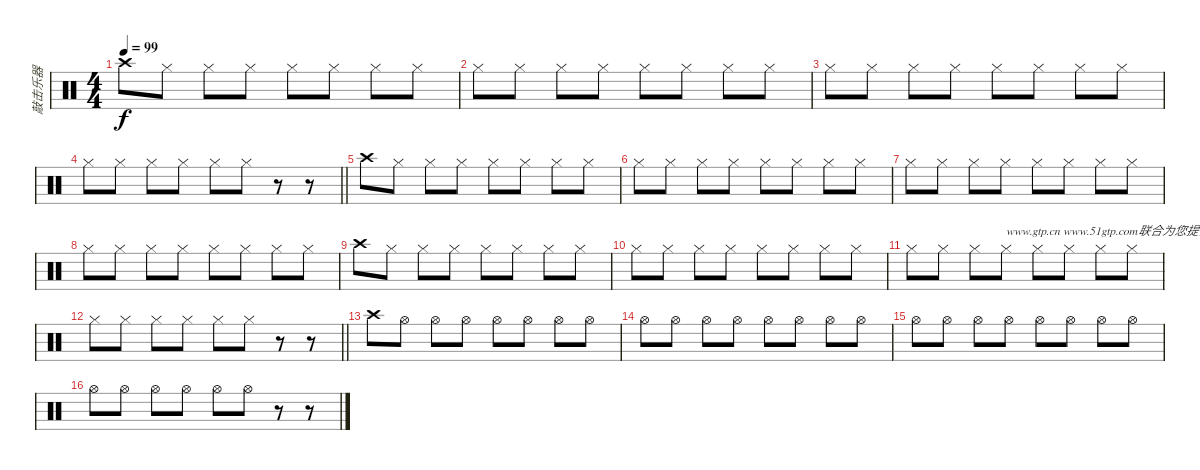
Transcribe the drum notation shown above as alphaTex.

\track ("敲击乐器" "敲击乐器") {instrument percussion}
\staff {score}
\articulation defaults
\ts (4 4)
\tempo 99
\clef neutral
\ks c "Crash high (hit)".8{dy f} "Hi-Hat (closed)".8 "Hi-Hat (closed)".8 "Hi-Hat (closed)".8 "Hi-Hat (closed)".8 "Hi-Hat (closed)".8 "Hi-Hat (closed)".8 "Hi-Hat (closed)".8
|
"Hi-Hat (closed)".8 "Hi-Hat (closed)".8 "Hi-Hat (closed)".8 "Hi-Hat (closed)".8 "Hi-Hat (closed)".8 "Hi-Hat (closed)".8 "Hi-Hat (closed)".8 "Hi-Hat (closed)".8 |
"Hi-Hat (closed)".8 "Hi-Hat (closed)".8 "Hi-Hat (closed)".8 "Hi-Hat (closed)".8 "Hi-Hat (closed)".8 "Hi-Hat (closed)".8 "Hi-Hat (closed)".8 "Hi-Hat (closed)".8 |
\barLineRight lightlight "Hi-Hat (closed)".8 "Hi-Hat (closed)".8 "Hi-Hat (closed)".8 "Hi-Hat (closed)".8 "Hi-Hat (closed)".8 "Hi-Hat (closed)".8
r.8 r.8 |
"Crash high (hit)".8 "Hi-Hat (closed)".8 "Hi-Hat (closed)".8 "Hi-Hat (closed)".8 "Hi-Hat (closed)".8 "Hi-Hat (closed)".8 "Hi-Hat (closed)".8 "Hi-Hat (closed)".8 |
"Hi-Hat (closed)".8 "Hi-Hat (closed)".8 "Hi-Hat (closed)".8 "Hi-Hat (closed)".8 "Hi-Hat (closed)".8 "Hi-Hat (closed)".8 "Hi-Hat (closed)".8 "Hi-Hat (closed)".8 |
"Hi-Hat (closed)".8 "Hi-Hat (closed)".8 "Hi-Hat (closed)".8 "Hi-Hat (closed)".8 "Hi-Hat (closed)".8 "Hi-Hat (closed)".8 "Hi-Hat (closed)".8 "Hi-Hat (closed)".8 |
"Hi-Hat (closed)".8 "Hi-Hat (closed)".8 "Hi-Hat (closed)".8 "Hi-Hat (closed)".8 "Hi-Hat (closed)".8 "Hi-Hat (closed)".8 "Hi-Hat (closed)".8 "Hi-Hat (closed)".8 |
"Crash high (hit)".8 "Hi-Hat (closed)".8 "Hi-Hat (closed)".8 "Hi-Hat (closed)".8 "Hi-Hat (closed)".8 "Hi-Hat (closed)".8 "Hi-Hat (closed)".8 "Hi-Hat (closed)".8 |
"Hi-Hat (closed)".8 "Hi-Hat (closed)".8 "Hi-Hat (closed)".8 "Hi-Hat (closed)".8 "Hi-Hat (closed)".8 "Hi-Hat (closed)".8 "Hi-Hat (closed)".8 "Hi-Hat (closed)".8 |
"Hi-Hat (closed)".8 "Hi-Hat (closed)".8 "Hi-Hat (closed)".8 "Hi-Hat (closed)".8{txt "www.gtp.cn www.51gtp.com联合为您提供优秀的GTP!"} "Hi-Hat (closed)".8 "Hi-Hat (closed)".8 "Hi-Hat (closed)".8 "Hi-Hat (closed)".8 |
\barLineRight lightlight "Hi-Hat (closed)".8 "Hi-Hat (closed)".8 "Hi-Hat (closed)".8 "Hi-Hat (closed)".8 "Hi-Hat (closed)".8 "Hi-Hat (closed)".8
r.8 r.8 |
"Crash high (hit)".8 "Hi-Hat (open)".8 "Hi-Hat (open)".8 "Hi-Hat (open)".8 "Hi-Hat (open)".8 "Hi-Hat (open)".8 "Hi-Hat (open)".8 "Hi-Hat (open)".8 |
"Hi-Hat (open)".8 "Hi-Hat (open)".8 "Hi-Hat (open)".8 "Hi-Hat (open)".8 "Hi-Hat (open)".8 "Hi-Hat (open)".8 "Hi-Hat (open)".8 "Hi-Hat (open)".8 |
"Hi-Hat (open)".8 "Hi-Hat (open)".8 "Hi-Hat (open)".8 "Hi-Hat (open)".8 "Hi-Hat (open)".8 "Hi-Hat (open)".8 "Hi-Hat (open)".8 "Hi-Hat (open)".8 |
"Hi-Hat (open)".8 "Hi-Hat (open)".8 "Hi-Hat (open)".8 "Hi-Hat (open)".8 "Hi-Hat (open)".8 "Hi-Hat (open)".8 r.8 r.8
